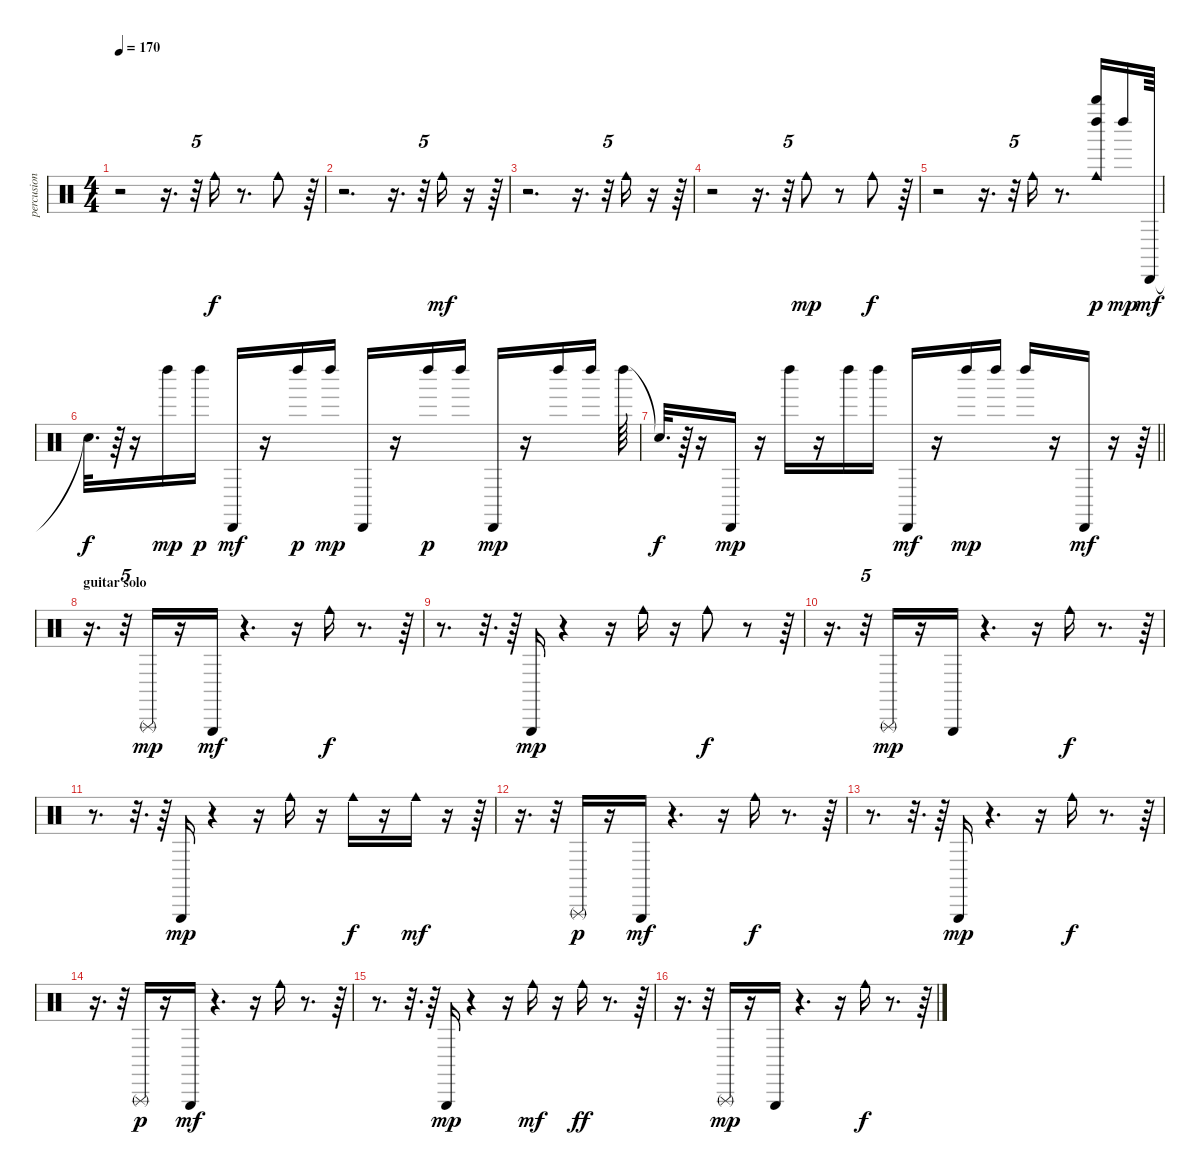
\track ("percusion" "percusion") {instrument percussion}
\staff {score}
\articulation defaults
\ts (4 4)
\tempo 170
\clef neutral
\ks c
r.2{dy f} r.16{d} r.32{tu (5 4)} "Cowbell medium (hit)".16 r.8{d} "Cowbell medium (hit)".8 r.64 |
r.2{d} r.16{d} r.32{tu (5 4)} "Cowbell medium (hit)".16{dy mf} r.16 r.64 |
r.2{d} r.16{d} r.32{tu (5 4)} "Cowbell medium (hit)".16 r.16 r.64 |
r.2 r.16{d} r.32{tu (5 4)} "Cowbell medium (hit)".8{dy mp} r.8 "Cowbell medium (hit)".8{dy f} r.64 |
r.2 r.16{d} r.32{tu (5 4)} "Cowbell medium (hit)".16 r.8{d} ("Cowbell medium (hit)" "Whistle high (hit)" "Left Maraca (hit)").16{dy p} "Left Maraca (hit)".16{dy mp} "Cabasa (hit)".64{dy mf} |
"Snare (hit)"{t}.32{d dy f} r.64 r.16 "Left Maraca (hit)".16{dy mp} "Left Maraca (hit)".16{dy p} "Cabasa (hit)".16{dy mf} r.16 "Left Maraca (hit)".16{dy p} "Left Maraca (hit)".16{dy mp} "Cabasa (hit)".16 r.16 "Left Maraca (hit)".16{dy p} "Left Maraca (hit)".16 "Cabasa (hit)".16{dy mp} r.16 "Left Maraca (hit)".16 "Left Maraca (hit)".16 "Left Maraca (hit)".64 |
\barLineRight lightlight "Snare (hit)"{t}.32{d dy f}
r.64 r.16 "Cabasa (hit)".16{dy mp} r.16 "Left Maraca (hit)".16 r.16 "Left Maraca (hit)".16 "Left Maraca (hit)".16 "Cabasa (hit)".16{dy mf} r.16 "Left Maraca (hit)".16{dy mp} "Left Maraca (hit)".16 "Left Maraca (hit)".16 r.16 "Cabasa (hit)".16{dy mf} r.16 r.64 |
\section ("" "guitar solo")
r.16{d} r.32{tu (5 4)} "Triangle (rnute)".16{dy mp} r.16 "Triangle (hit)".16{dy mf} r.4{d} r.16 "Cowbell medium (hit)".16{dy f} r.8{d} r.64 |
r.8{d} r.32{d} r.64 "Triangle (hit)".16{dy mp} r.4 r.16 "Cowbell medium (hit)".16 r.16 "Cowbell medium (hit)".8{dy f} r.8 r.64 |
r.16{d} r.32{tu (5 4)} "Triangle (rnute)".16{dy mp} r.16 "Triangle (hit)".16 r.4{d} r.16 "Cowbell medium (hit)".16{dy f} r.8{d} r.64 |
r.8{d} r.32{d} r.64 "Triangle (hit)".16{dy mp} r.4 r.16 "Cowbell medium (hit)".16 r.16 "Cowbell medium (hit)".16{dy f} r.16 "Cowbell medium (hit)".16{dy mf} r.16 r.64 |
r.16{d} r.32{tu (5 4)} "Triangle (rnute)".16{dy p} r.16 "Triangle (hit)".16{dy mf} r.4{d} r.16 "Cowbell medium (hit)".16{dy f} r.8{d} r.64 |
r.8{d} r.32{d} r.64 "Triangle (hit)".16{dy mp} r.4{d} r.16 "Cowbell medium (hit)".16{dy f} r.8{d} r.64 |
r.16{d} r.32{tu (5 4)} "Triangle (rnute)".16{dy p} r.16 "Triangle (hit)".16{dy mf} r.4{d} r.16 "Cowbell medium (hit)".16 r.8{d} r.64 |
r.8{d} r.32{d} r.64 "Triangle (hit)".16{dy mp} r.4 r.16 "Cowbell medium (hit)".16{dy mf} r.16 "Cowbell medium (hit)".16{dy ff} r.8{d} r.64 |
r.16{d} r.32{tu (5 4)} "Triangle (rnute)".16{dy mp} r.16 "Triangle (hit)".16 r.4{d} r.16 "Cowbell medium (hit)".16{dy f} r.8{d} r.64
